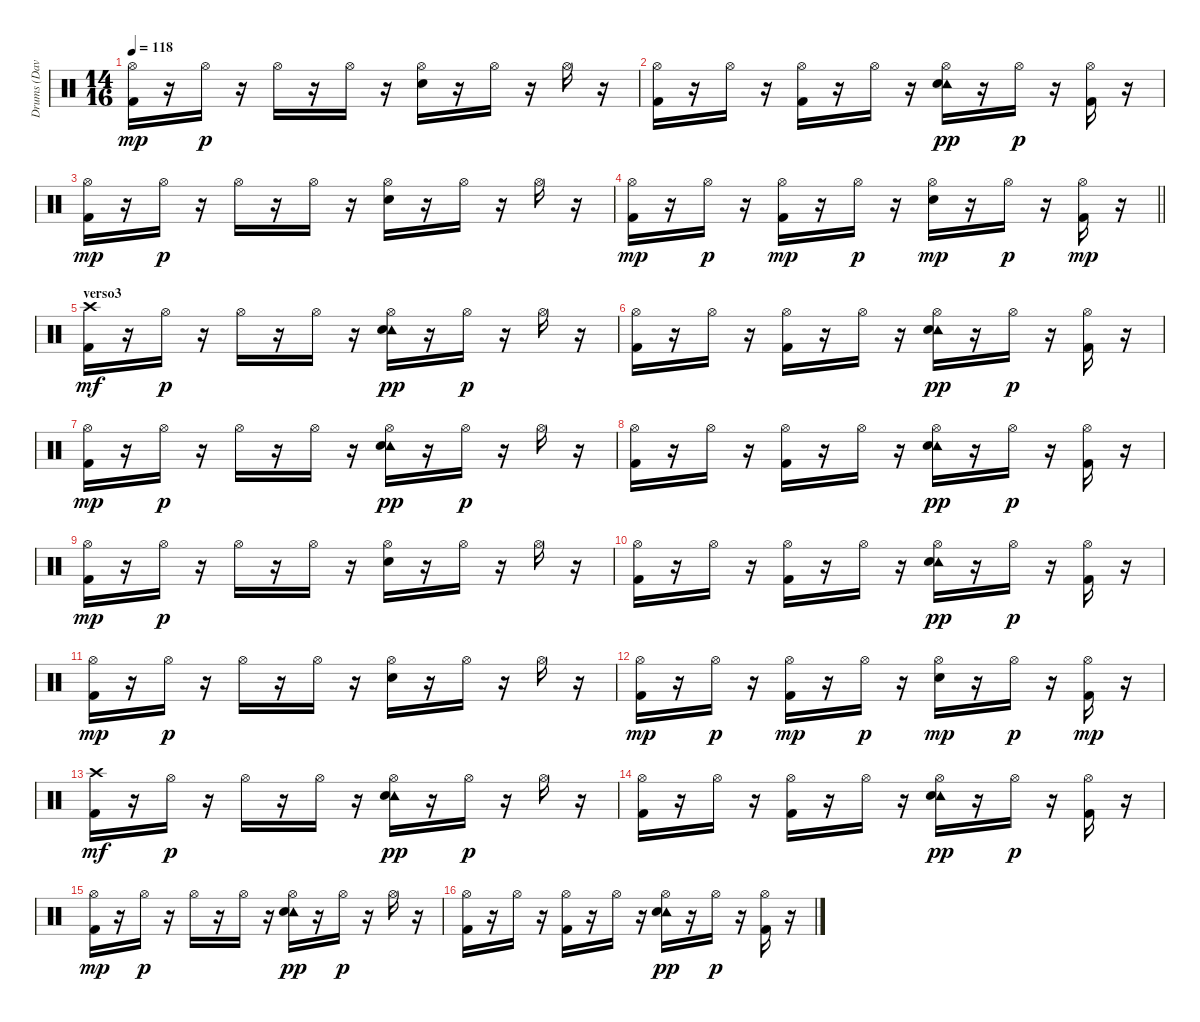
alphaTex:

\track ("Drums (Dave Turncrantz)" "Drums (Dav") {instrument percussion}
\staff {score}
\articulation defaults
\ts (14 16)
\tempo 118
\clef neutral
\ks c
("Hi-Hat (open)" "Kick (hit) 2").16{dy mp} r.16 "Hi-Hat (open)".16{dy p} r.16 "Hi-Hat (open)".16 r.16 "Hi-Hat (open)".16 r.16 ("Hi-Hat (open)" "Snare (hit) 2").16 r.16 "Hi-Hat (open)".16 r.16 "Hi-Hat (open)".16 r.16 |
("Hi-Hat (open)" "Kick (hit) 2").16 r.16 "Hi-Hat (open)".16 r.16 ("Hi-Hat (open)" "Kick (hit) 2").16 r.16 "Hi-Hat (open)".16 r.16 ("Hi-Hat (open)" "Tambourine (hit)" "Snare (hit) 2").16{dy pp} r.16 "Hi-Hat (open)".16{dy p} r.16 ("Hi-Hat (open)" "Kick (hit) 2").16 r.16 |
("Hi-Hat (open)" "Kick (hit) 2").16{dy mp} r.16 "Hi-Hat (open)".16{dy p} r.16 "Hi-Hat (open)".16 r.16 "Hi-Hat (open)".16 r.16 ("Hi-Hat (open)" "Snare (hit) 2").16 r.16 "Hi-Hat (open)".16 r.16 "Hi-Hat (open)".16 r.16 |
\barLineRight lightlight
("Hi-Hat (open)" "Kick (hit) 2").16{dy mp} r.16 "Hi-Hat (open)".16{dy p} r.16 ("Hi-Hat (open)" "Kick (hit) 2").16{dy mp} r.16 "Hi-Hat (open)".16{dy p} r.16 ("Hi-Hat (open)" "Snare (hit) 2").16{dy mp} r.16 "Hi-Hat (open)".16{dy p} r.16 ("Hi-Hat (open)" "Kick (hit) 2").16{dy mp} r.16 |
\section ("" "verso3")
("Crash high (hit)" "Kick (hit) 2").16{dy mf} r.16 "Hi-Hat (open)".16{dy p} r.16 "Hi-Hat (open)".16 r.16 "Hi-Hat (open)".16 r.16 ("Hi-Hat (open)" "Tambourine (hit)" "Snare (hit) 2").16{dy pp} r.16 "Hi-Hat (open)".16{dy p} r.16 "Hi-Hat (open)".16 r.16 |
("Hi-Hat (open)" "Kick (hit) 2").16 r.16 "Hi-Hat (open)".16 r.16 ("Hi-Hat (open)" "Kick (hit) 2").16 r.16 "Hi-Hat (open)".16 r.16 ("Hi-Hat (open)" "Tambourine (hit)" "Snare (hit) 2").16{dy pp} r.16 "Hi-Hat (open)".16{dy p} r.16 ("Hi-Hat (open)" "Kick (hit) 2").16 r.16 |
("Hi-Hat (open)" "Kick (hit) 2").16{dy mp} r.16 "Hi-Hat (open)".16{dy p} r.16 "Hi-Hat (open)".16 r.16 "Hi-Hat (open)".16 r.16 ("Hi-Hat (open)" "Tambourine (hit)" "Snare (hit) 2").16{dy pp} r.16 "Hi-Hat (open)".16{dy p} r.16 "Hi-Hat (open)".16 r.16 |
("Hi-Hat (open)" "Kick (hit) 2").16 r.16 "Hi-Hat (open)".16 r.16 ("Hi-Hat (open)" "Kick (hit) 2").16 r.16 "Hi-Hat (open)".16 r.16 ("Hi-Hat (open)" "Tambourine (hit)" "Snare (hit) 2").16{dy pp} r.16 "Hi-Hat (open)".16{dy p} r.16 ("Hi-Hat (open)" "Kick (hit) 2").16 r.16 |
("Hi-Hat (open)" "Kick (hit) 2").16{dy mp} r.16 "Hi-Hat (open)".16{dy p} r.16 "Hi-Hat (open)".16 r.16 "Hi-Hat (open)".16 r.16 ("Hi-Hat (open)" "Snare (hit) 2").16 r.16 "Hi-Hat (open)".16 r.16 "Hi-Hat (open)".16 r.16 |
("Hi-Hat (open)" "Kick (hit) 2").16 r.16 "Hi-Hat (open)".16 r.16 ("Hi-Hat (open)" "Kick (hit) 2").16 r.16 "Hi-Hat (open)".16 r.16 ("Hi-Hat (open)" "Tambourine (hit)" "Snare (hit) 2").16{dy pp} r.16 "Hi-Hat (open)".16{dy p} r.16 ("Hi-Hat (open)" "Kick (hit) 2").16 r.16 |
("Hi-Hat (open)" "Kick (hit) 2").16{dy mp} r.16 "Hi-Hat (open)".16{dy p} r.16 "Hi-Hat (open)".16 r.16 "Hi-Hat (open)".16 r.16 ("Hi-Hat (open)" "Snare (hit) 2").16 r.16 "Hi-Hat (open)".16 r.16 "Hi-Hat (open)".16 r.16 |
("Hi-Hat (open)" "Kick (hit) 2").16{dy mp} r.16 "Hi-Hat (open)".16{dy p} r.16 ("Hi-Hat (open)" "Kick (hit) 2").16{dy mp} r.16 "Hi-Hat (open)".16{dy p} r.16 ("Hi-Hat (open)" "Snare (hit) 2").16{dy mp} r.16 "Hi-Hat (open)".16{dy p} r.16 ("Hi-Hat (open)" "Kick (hit) 2").16{dy mp} r.16 |
("Crash high (hit)" "Kick (hit) 2").16{dy mf} r.16 "Hi-Hat (open)".16{dy p} r.16 "Hi-Hat (open)".16 r.16 "Hi-Hat (open)".16 r.16 ("Hi-Hat (open)" "Tambourine (hit)" "Snare (hit) 2").16{dy pp} r.16 "Hi-Hat (open)".16{dy p} r.16 "Hi-Hat (open)".16 r.16 |
("Hi-Hat (open)" "Kick (hit) 2").16 r.16 "Hi-Hat (open)".16 r.16 ("Hi-Hat (open)" "Kick (hit) 2").16 r.16 "Hi-Hat (open)".16 r.16 ("Hi-Hat (open)" "Tambourine (hit)" "Snare (hit) 2").16{dy pp} r.16 "Hi-Hat (open)".16{dy p} r.16 ("Hi-Hat (open)" "Kick (hit) 2").16 r.16 |
("Hi-Hat (open)" "Kick (hit) 2").16{dy mp} r.16 "Hi-Hat (open)".16{dy p} r.16 "Hi-Hat (open)".16 r.16 "Hi-Hat (open)".16 r.16 ("Hi-Hat (open)" "Tambourine (hit)" "Snare (hit) 2").16{dy pp} r.16 "Hi-Hat (open)".16{dy p} r.16 "Hi-Hat (open)".16 r.16 |
("Hi-Hat (open)" "Kick (hit) 2").16 r.16 "Hi-Hat (open)".16 r.16 ("Hi-Hat (open)" "Kick (hit) 2").16 r.16 "Hi-Hat (open)".16 r.16 ("Hi-Hat (open)" "Tambourine (hit)" "Snare (hit) 2").16{dy pp} r.16 "Hi-Hat (open)".16{dy p} r.16 ("Hi-Hat (open)" "Kick (hit) 2").16 r.16
